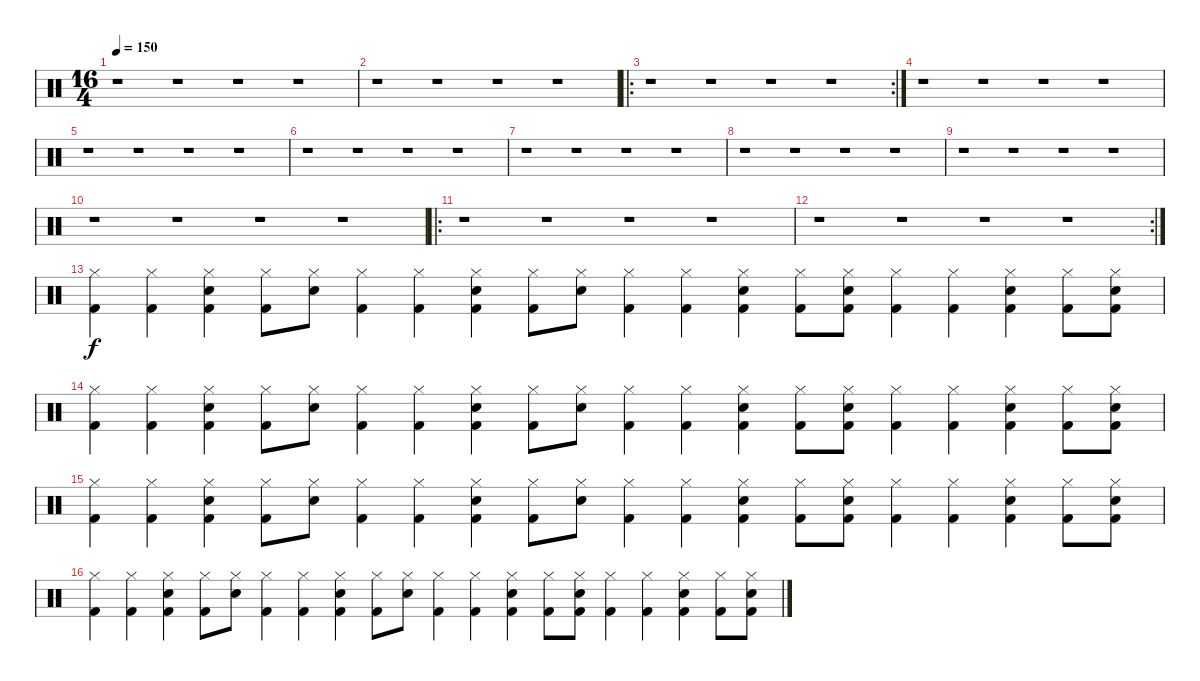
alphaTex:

\track "" {instrument percussion}
\staff {score}
\articulation defaults
\ts (16 4)
\tempo 150
\clef neutral
\ks c
r.1{dy f} r.1 r.1 r.1 |
r.1 r.1 r.1 r.1 |
\ro
\rc 2
r.1 r.1 r.1 r.1 |
r.1 r.1 r.1 r.1 |
r.1 r.1 r.1 r.1 |
r.1 r.1 r.1 r.1 |
r.1 r.1 r.1 r.1 |
r.1 r.1 r.1 r.1 |
r.1 r.1 r.1 r.1 |
r.1 r.1 r.1 r.1 |
\ro
r.1 r.1 r.1 r.1 |
\rc 2
r.1 r.1 r.1 r.1 |
("Hi-Hat (closed)" "Kick (hit) 2").4 ("Hi-Hat (closed)" "Kick (hit) 2").4 ("Hi-Hat (closed)" "Electric Snare (hit)" "Kick (hit) 2").4 ("Hi-Hat (closed)" "Kick (hit) 2").8 ("Hi-Hat (closed)" "Electric Snare (hit)").8 ("Hi-Hat (closed)" "Kick (hit) 2").4 ("Hi-Hat (closed)" "Kick (hit) 2").4 ("Hi-Hat (closed)" "Electric Snare (hit)" "Kick (hit) 2").4 ("Hi-Hat (closed)" "Kick (hit) 2").8 ("Hi-Hat (closed)" "Electric Snare (hit)").8 ("Hi-Hat (closed)" "Kick (hit) 2").4 ("Hi-Hat (closed)" "Kick (hit) 2").4 ("Hi-Hat (closed)" "Electric Snare (hit)" "Kick (hit) 2").4 ("Hi-Hat (closed)" "Kick (hit) 2").8 ("Hi-Hat (closed)" "Electric Snare (hit)" "Kick (hit) 2").8 ("Hi-Hat (closed)" "Kick (hit) 2").4 ("Hi-Hat (closed)" "Kick (hit) 2").4 ("Hi-Hat (closed)" "Electric Snare (hit)" "Kick (hit) 2").4 ("Hi-Hat (closed)" "Kick (hit) 2").8 ("Hi-Hat (closed)" "Electric Snare (hit)" "Kick (hit) 2").8 |
("Hi-Hat (closed)" "Kick (hit) 2").4 ("Hi-Hat (closed)" "Kick (hit) 2").4 ("Hi-Hat (closed)" "Electric Snare (hit)" "Kick (hit) 2").4 ("Hi-Hat (closed)" "Kick (hit) 2").8 ("Hi-Hat (closed)" "Electric Snare (hit)").8 ("Hi-Hat (closed)" "Kick (hit) 2").4 ("Hi-Hat (closed)" "Kick (hit) 2").4 ("Hi-Hat (closed)" "Electric Snare (hit)" "Kick (hit) 2").4 ("Hi-Hat (closed)" "Kick (hit) 2").8 ("Hi-Hat (closed)" "Electric Snare (hit)").8 ("Hi-Hat (closed)" "Kick (hit) 2").4 ("Hi-Hat (closed)" "Kick (hit) 2").4 ("Hi-Hat (closed)" "Electric Snare (hit)" "Kick (hit) 2").4 ("Hi-Hat (closed)" "Kick (hit) 2").8 ("Hi-Hat (closed)" "Electric Snare (hit)" "Kick (hit) 2").8 ("Hi-Hat (closed)" "Kick (hit) 2").4 ("Hi-Hat (closed)" "Kick (hit) 2").4 ("Hi-Hat (closed)" "Electric Snare (hit)" "Kick (hit) 2").4 ("Hi-Hat (closed)" "Kick (hit) 2").8 ("Hi-Hat (closed)" "Electric Snare (hit)" "Kick (hit) 2").8 |
("Hi-Hat (closed)" "Kick (hit) 2").4 ("Hi-Hat (closed)" "Kick (hit) 2").4 ("Hi-Hat (closed)" "Electric Snare (hit)" "Kick (hit) 2").4 ("Hi-Hat (closed)" "Kick (hit) 2").8 ("Hi-Hat (closed)" "Electric Snare (hit)").8 ("Hi-Hat (closed)" "Kick (hit) 2").4 ("Hi-Hat (closed)" "Kick (hit) 2").4 ("Hi-Hat (closed)" "Electric Snare (hit)" "Kick (hit) 2").4 ("Hi-Hat (closed)" "Kick (hit) 2").8 ("Hi-Hat (closed)" "Electric Snare (hit)").8 ("Hi-Hat (closed)" "Kick (hit) 2").4 ("Hi-Hat (closed)" "Kick (hit) 2").4 ("Hi-Hat (closed)" "Electric Snare (hit)" "Kick (hit) 2").4 ("Hi-Hat (closed)" "Kick (hit) 2").8 ("Hi-Hat (closed)" "Electric Snare (hit)" "Kick (hit) 2").8 ("Hi-Hat (closed)" "Kick (hit) 2").4 ("Hi-Hat (closed)" "Kick (hit) 2").4 ("Hi-Hat (closed)" "Electric Snare (hit)" "Kick (hit) 2").4 ("Hi-Hat (closed)" "Kick (hit) 2").8 ("Hi-Hat (closed)" "Electric Snare (hit)" "Kick (hit) 2").8 |
("Hi-Hat (closed)" "Kick (hit) 2").4 ("Hi-Hat (closed)" "Kick (hit) 2").4 ("Hi-Hat (closed)" "Electric Snare (hit)" "Kick (hit) 2").4 ("Hi-Hat (closed)" "Kick (hit) 2").8 ("Hi-Hat (closed)" "Electric Snare (hit)").8 ("Hi-Hat (closed)" "Kick (hit) 2").4 ("Hi-Hat (closed)" "Kick (hit) 2").4 ("Hi-Hat (closed)" "Electric Snare (hit)" "Kick (hit) 2").4 ("Hi-Hat (closed)" "Kick (hit) 2").8 ("Hi-Hat (closed)" "Electric Snare (hit)").8 ("Hi-Hat (closed)" "Kick (hit) 2").4 ("Hi-Hat (closed)" "Kick (hit) 2").4 ("Hi-Hat (closed)" "Electric Snare (hit)" "Kick (hit) 2").4 ("Hi-Hat (closed)" "Kick (hit) 2").8 ("Hi-Hat (closed)" "Electric Snare (hit)" "Kick (hit) 2").8 ("Hi-Hat (closed)" "Kick (hit) 2").4 ("Hi-Hat (closed)" "Kick (hit) 2").4 ("Hi-Hat (closed)" "Electric Snare (hit)" "Kick (hit) 2").4 ("Hi-Hat (closed)" "Kick (hit) 2").8 ("Hi-Hat (closed)" "Electric Snare (hit)" "Kick (hit) 2").8
